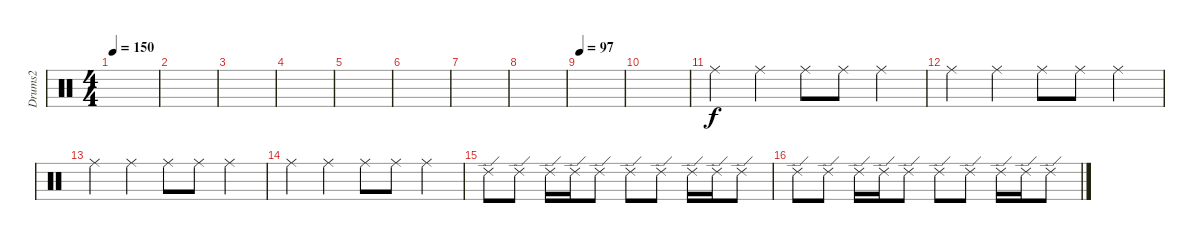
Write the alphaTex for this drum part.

\track ("Drums2" "Drums2") {instrument percussion}
\staff {score}
\articulation defaults
\ts (4 4)
\tempo 150
\clef neutral
\ks c
|
|
|
|
|
|
|
|
\tempo 97
|
|
"Ride (middle)".4 "Ride (middle)".4 "Ride (middle)".8 "Ride (middle)".8 "Ride (middle)".4 |
"Ride (middle)".4 "Ride (middle)".4 "Ride (middle)".8 "Ride (middle)".8 "Ride (middle)".4 |
"Ride (middle)".4 "Ride (middle)".4 "Ride (middle)".8 "Ride (middle)".8 "Ride (middle)".4 |
"Ride (middle)".4 "Ride (middle)".4 "Ride (middle)".8 "Ride (middle)".8 "Ride (middle)".4 |
"Ride (edge) 2".8 "Ride (edge) 2".8 "Ride (edge) 2".16 "Ride (edge) 2".16 "Ride (edge) 2".8 "Ride (edge) 2".8 "Ride (edge) 2".8 "Ride (edge) 2".16 "Ride (edge) 2".16 "Ride (edge) 2".8 |
"Ride (edge) 2".8 "Ride (edge) 2".8 "Ride (edge) 2".16 "Ride (edge) 2".16 "Ride (edge) 2".8 "Ride (edge) 2".8 "Ride (edge) 2".8 "Ride (edge) 2".16 "Ride (edge) 2".16 "Ride (edge) 2".8
